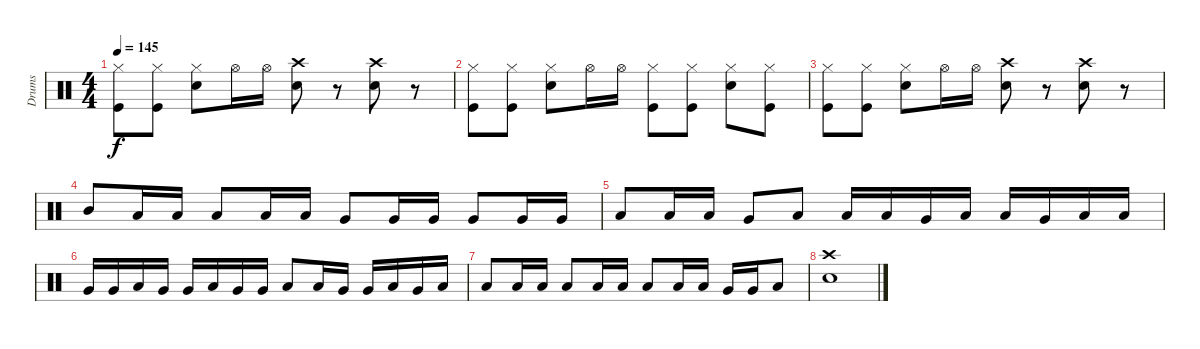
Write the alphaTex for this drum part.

\track ("Drums" "Drums") {instrument percussion}
\staff {score}
\articulation defaults
\ts (4 4)
\tempo 145
\clef neutral
\ks c
("Hi-Hat (closed)" "Kick (hit)").8{dy f} ("Hi-Hat (closed)" "Kick (hit)").8 ("Hi-Hat (closed)" "Snare (hit) 2").8 "Hi-Hat (open)".16 "Hi-Hat (open)".16 ("Crash high (hit)" "Snare (hit) 2").8 r.8 ("Crash high (hit)" "Snare (hit) 2").8 r.8 |
("Hi-Hat (closed)" "Kick (hit)").8 ("Hi-Hat (closed)" "Kick (hit)").8 ("Hi-Hat (closed)" "Snare (hit) 2").8 "Hi-Hat (open)".16 "Hi-Hat (open)".16 ("Hi-Hat (closed)" "Kick (hit)").8 ("Hi-Hat (closed)" "Kick (hit)").8 ("Hi-Hat (closed)" "Snare (hit) 2").8 ("Hi-Hat (closed)" "Kick (hit)").8 |
("Hi-Hat (closed)" "Kick (hit)").8 ("Hi-Hat (closed)" "Kick (hit)").8 ("Hi-Hat (closed)" "Snare (hit) 2").8 "Hi-Hat (open)".16 "Hi-Hat (open)".16 ("Crash high (hit)" "Snare (hit) 2").8 r.8 ("Crash high (hit)" "Snare (hit) 2").8 r.8 |
"Mid Tom (hit)".8 "Low Tom (hit)".16 "Low Tom (hit)".16 "Low Tom (hit)".8 "Low Tom (hit)".16 "Low Tom (hit)".16 "Very Low Tom (hit)".8 "Very Low Tom (hit)".16 "Very Low Tom (hit)".16 "Very Low Tom (hit)".8 "Very Low Tom (hit)".16 "Very Low Tom (hit)".16 |
"Low Floor Tom (hit)".8 "Low Floor Tom (hit)".16 "Low Floor Tom (hit)".16 "Very Low Tom (hit)".8 "Low Tom (hit)".8 "Low Tom (hit)".16 "Low Tom (hit)".16 "Very Low Tom (hit)".16 "Low Tom (hit)".16 "Low Tom (hit)".16 "Very Low Tom (hit)".16 "Low Tom (hit)".16 "Low Tom (hit)".16 |
"Very Low Tom (hit)".16 "Very Low Tom (hit)".16 "Low Tom (hit)".16 "Very Low Tom (hit)".16 "Very Low Tom (hit)".16 "Low Tom (hit)".16 "Very Low Tom (hit)".16 "Very Low Tom (hit)".16 "Low Tom (hit)".8 "Low Tom (hit)".16 "Very Low Tom (hit)".16 "Very Low Tom (hit)".16 "Low Tom (hit)".16 "Very Low Tom (hit)".16 "Low Floor Tom (hit)".16 |
"Low Floor Tom (hit)".8 "Low Floor Tom (hit)".16 "Low Floor Tom (hit)".16 "Low Floor Tom (hit)".8 "Low Floor Tom (hit)".16 "Low Floor Tom (hit)".16 "Low Floor Tom (hit)".8 "Low Floor Tom (hit)".16 "Low Floor Tom (hit)".16 "Very Low Tom (hit)".16 "Very Low Tom (hit)".16 "Low Floor Tom (hit)".8 |
("Crash high (hit)" "Snare (hit) 2").1
